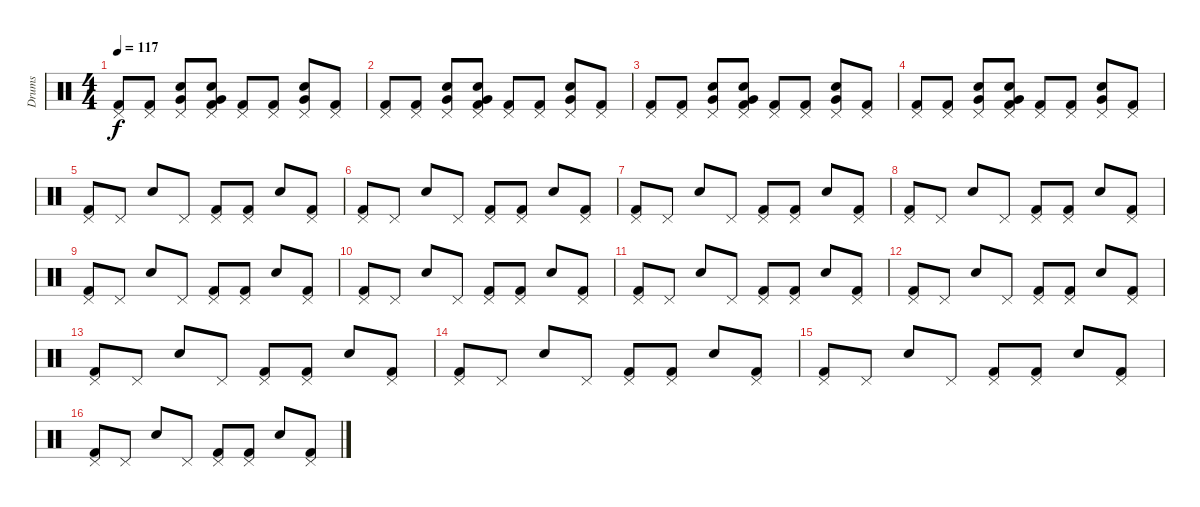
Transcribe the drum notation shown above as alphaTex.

\track ("Drums" "Drums") {instrument percussion}
\staff {score}
\articulation defaults
\ts (4 4)
\tempo 117
\clef neutral
\ks c
("Pedal Hi-Hat (hit)" "Kick (hit) 2").8{dy f} ("Pedal Hi-Hat (hit)" "Kick (hit) 2").8 ("Very Low Tom (hit)" "Snare (hit) 2" "Pedal Hi-Hat (hit)").8 ("Very Low Tom (hit)" "Snare (hit) 2" "Pedal Hi-Hat (hit)" "Kick (hit) 2").8 ("Pedal Hi-Hat (hit)" "Kick (hit) 2").8 ("Pedal Hi-Hat (hit)" "Kick (hit) 2").8 ("Very Low Tom (hit)" "Snare (hit) 2" "Pedal Hi-Hat (hit)").8 ("Pedal Hi-Hat (hit)" "Kick (hit) 2").8 |
("Pedal Hi-Hat (hit)" "Kick (hit) 2").8 ("Pedal Hi-Hat (hit)" "Kick (hit) 2").8 ("Very Low Tom (hit)" "Snare (hit) 2" "Pedal Hi-Hat (hit)").8 ("Very Low Tom (hit)" "Snare (hit) 2" "Pedal Hi-Hat (hit)" "Kick (hit) 2").8 ("Pedal Hi-Hat (hit)" "Kick (hit) 2").8 ("Pedal Hi-Hat (hit)" "Kick (hit) 2").8 ("Very Low Tom (hit)" "Snare (hit) 2" "Pedal Hi-Hat (hit)").8 ("Pedal Hi-Hat (hit)" "Kick (hit) 2").8 |
("Pedal Hi-Hat (hit)" "Kick (hit) 2").8 ("Pedal Hi-Hat (hit)" "Kick (hit) 2").8 ("Very Low Tom (hit)" "Snare (hit) 2" "Pedal Hi-Hat (hit)").8 ("Very Low Tom (hit)" "Snare (hit) 2" "Pedal Hi-Hat (hit)" "Kick (hit) 2").8 ("Pedal Hi-Hat (hit)" "Kick (hit) 2").8 ("Pedal Hi-Hat (hit)" "Kick (hit) 2").8 ("Very Low Tom (hit)" "Snare (hit) 2" "Pedal Hi-Hat (hit)").8 ("Pedal Hi-Hat (hit)" "Kick (hit) 2").8 |
("Pedal Hi-Hat (hit)" "Kick (hit) 2").8 ("Pedal Hi-Hat (hit)" "Kick (hit) 2").8 ("Very Low Tom (hit)" "Snare (hit) 2" "Pedal Hi-Hat (hit)").8 ("Very Low Tom (hit)" "Snare (hit) 2" "Pedal Hi-Hat (hit)" "Kick (hit) 2").8 ("Pedal Hi-Hat (hit)" "Kick (hit) 2").8 ("Pedal Hi-Hat (hit)" "Kick (hit) 2").8 ("Very Low Tom (hit)" "Snare (hit) 2" "Pedal Hi-Hat (hit)").8 ("Pedal Hi-Hat (hit)" "Kick (hit) 2").8 |
("Pedal Hi-Hat (hit)" "Kick (hit) 2").8 "Pedal Hi-Hat (hit)".8 "Snare (hit) 2".8 "Pedal Hi-Hat (hit)".8 ("Pedal Hi-Hat (hit)" "Kick (hit) 2").8 ("Pedal Hi-Hat (hit)" "Kick (hit) 2").8 "Snare (hit) 2".8 ("Pedal Hi-Hat (hit)" "Kick (hit) 2").8 |
("Pedal Hi-Hat (hit)" "Kick (hit) 2").8 "Pedal Hi-Hat (hit)".8 "Snare (hit) 2".8 "Pedal Hi-Hat (hit)".8 ("Pedal Hi-Hat (hit)" "Kick (hit) 2").8 ("Pedal Hi-Hat (hit)" "Kick (hit) 2").8 "Snare (hit) 2".8 ("Pedal Hi-Hat (hit)" "Kick (hit) 2").8 |
("Pedal Hi-Hat (hit)" "Kick (hit) 2").8 "Pedal Hi-Hat (hit)".8 "Snare (hit) 2".8 "Pedal Hi-Hat (hit)".8 ("Pedal Hi-Hat (hit)" "Kick (hit) 2").8 ("Pedal Hi-Hat (hit)" "Kick (hit) 2").8 "Snare (hit) 2".8 ("Pedal Hi-Hat (hit)" "Kick (hit) 2").8 |
("Pedal Hi-Hat (hit)" "Kick (hit) 2").8 "Pedal Hi-Hat (hit)".8 "Snare (hit) 2".8 "Pedal Hi-Hat (hit)".8 ("Pedal Hi-Hat (hit)" "Kick (hit) 2").8 ("Pedal Hi-Hat (hit)" "Kick (hit) 2").8 "Snare (hit) 2".8 ("Pedal Hi-Hat (hit)" "Kick (hit) 2").8 |
("Pedal Hi-Hat (hit)" "Kick (hit) 2").8 "Pedal Hi-Hat (hit)".8 "Snare (hit) 2".8 "Pedal Hi-Hat (hit)".8 ("Pedal Hi-Hat (hit)" "Kick (hit) 2").8 ("Pedal Hi-Hat (hit)" "Kick (hit) 2").8 "Snare (hit) 2".8 ("Pedal Hi-Hat (hit)" "Kick (hit) 2").8 |
("Pedal Hi-Hat (hit)" "Kick (hit) 2").8 "Pedal Hi-Hat (hit)".8 "Snare (hit) 2".8 "Pedal Hi-Hat (hit)".8 ("Pedal Hi-Hat (hit)" "Kick (hit) 2").8 ("Pedal Hi-Hat (hit)" "Kick (hit) 2").8 "Snare (hit) 2".8 ("Pedal Hi-Hat (hit)" "Kick (hit) 2").8 |
("Pedal Hi-Hat (hit)" "Kick (hit) 2").8 "Pedal Hi-Hat (hit)".8 "Snare (hit) 2".8 "Pedal Hi-Hat (hit)".8 ("Pedal Hi-Hat (hit)" "Kick (hit) 2").8 ("Pedal Hi-Hat (hit)" "Kick (hit) 2").8 "Snare (hit) 2".8 ("Pedal Hi-Hat (hit)" "Kick (hit) 2").8 |
("Pedal Hi-Hat (hit)" "Kick (hit) 2").8 "Pedal Hi-Hat (hit)".8 "Snare (hit) 2".8 "Pedal Hi-Hat (hit)".8 ("Pedal Hi-Hat (hit)" "Kick (hit) 2").8 ("Pedal Hi-Hat (hit)" "Kick (hit) 2").8 "Snare (hit) 2".8 ("Pedal Hi-Hat (hit)" "Kick (hit) 2").8 |
("Pedal Hi-Hat (hit)" "Kick (hit) 2").8 "Pedal Hi-Hat (hit)".8 "Snare (hit) 2".8 "Pedal Hi-Hat (hit)".8 ("Pedal Hi-Hat (hit)" "Kick (hit) 2").8 ("Pedal Hi-Hat (hit)" "Kick (hit) 2").8 "Snare (hit) 2".8 ("Pedal Hi-Hat (hit)" "Kick (hit) 2").8 |
("Pedal Hi-Hat (hit)" "Kick (hit) 2").8 "Pedal Hi-Hat (hit)".8 "Snare (hit) 2".8 "Pedal Hi-Hat (hit)".8 ("Pedal Hi-Hat (hit)" "Kick (hit) 2").8 ("Pedal Hi-Hat (hit)" "Kick (hit) 2").8 "Snare (hit) 2".8 ("Pedal Hi-Hat (hit)" "Kick (hit) 2").8 |
("Pedal Hi-Hat (hit)" "Kick (hit) 2").8 "Pedal Hi-Hat (hit)".8 "Snare (hit) 2".8 "Pedal Hi-Hat (hit)".8 ("Pedal Hi-Hat (hit)" "Kick (hit) 2").8 ("Pedal Hi-Hat (hit)" "Kick (hit) 2").8 "Snare (hit) 2".8 ("Pedal Hi-Hat (hit)" "Kick (hit) 2").8 |
("Pedal Hi-Hat (hit)" "Kick (hit) 2").8 "Pedal Hi-Hat (hit)".8 "Snare (hit) 2".8 "Pedal Hi-Hat (hit)".8 ("Pedal Hi-Hat (hit)" "Kick (hit) 2").8 ("Pedal Hi-Hat (hit)" "Kick (hit) 2").8 "Snare (hit) 2".8 ("Pedal Hi-Hat (hit)" "Kick (hit) 2").8
